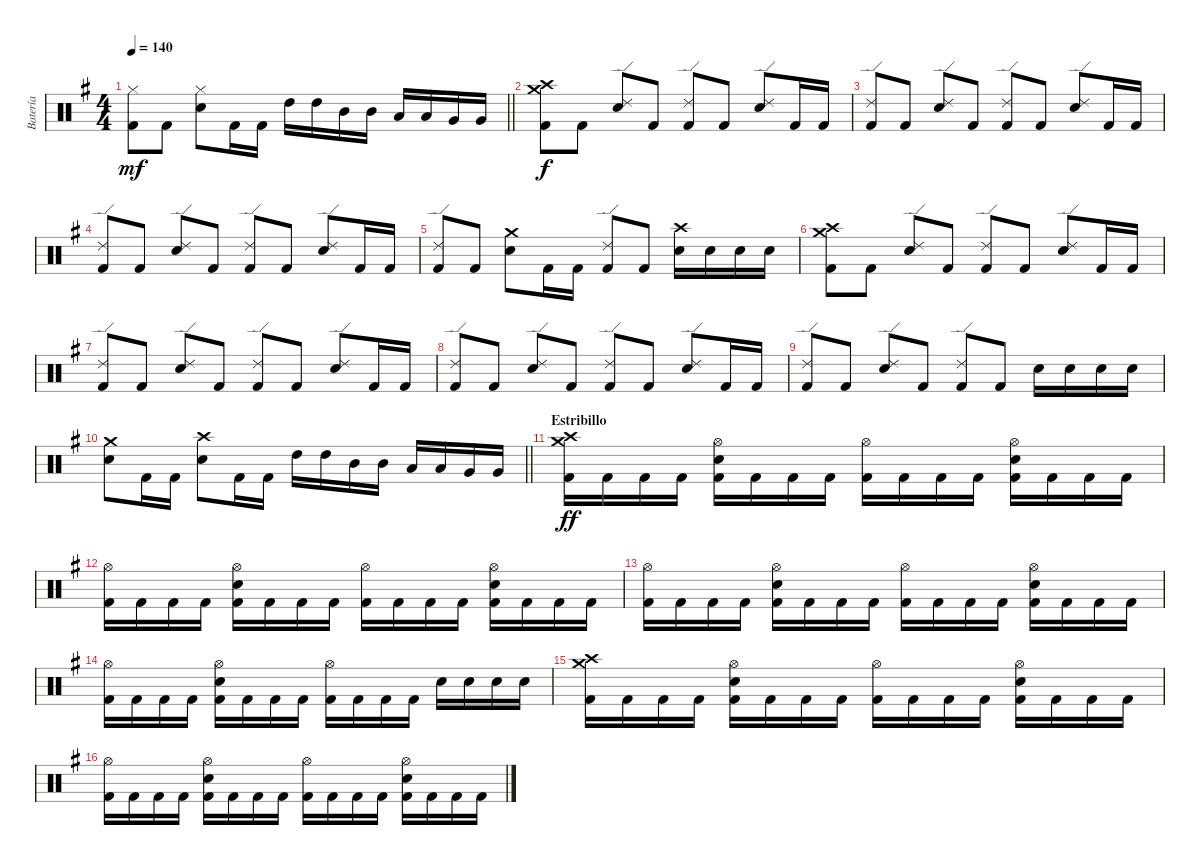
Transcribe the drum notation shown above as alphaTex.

\track ("Batería" "Batería") {instrument percussion}
\staff {score}
\articulation defaults
\ts (4 4)
\tempo 140
\clef neutral
\barLineRight lightlight
\ks g
("Hi-Hat (closed)" "Kick (hit) 2").8{dy mf} "Kick (hit) 2".8 ("Hi-Hat (closed)" "Snare (hit) 2").8 "Kick (hit) 2".16 "Kick (hit) 2".16 "High Tom (hit)".16 "High Tom (hit)".16 "Mid Tom (hit)".16 "Mid Tom (hit)".16 "Low Tom (hit)".16 "Low Tom (hit)".16 "Very Low Tom (hit)".16 "Very Low Tom (hit)".16 |
\section ("" "")
("Crash medium (hit)" "Crash high (hit)" "Kick (hit) 2").8{dy f} "Kick (hit) 2".8 ("Ride (edge) 2" "Snare (hit) 2").8 "Kick (hit) 2".8 ("Ride (edge) 2" "Kick (hit) 2").8 "Kick (hit) 2".8 ("Ride (edge) 2" "Snare (hit) 2").8 "Kick (hit) 2".16 "Kick (hit) 2".16 |
("Ride (edge) 2" "Kick (hit) 2").8 "Kick (hit) 2".8 ("Ride (edge) 2" "Snare (hit) 2").8 "Kick (hit) 2".8 ("Ride (edge) 2" "Kick (hit) 2").8 "Kick (hit) 2".8 ("Ride (edge) 2" "Snare (hit) 2").8 "Kick (hit) 2".16 "Kick (hit) 2".16 |
("Ride (edge) 2" "Kick (hit) 2").8 "Kick (hit) 2".8 ("Ride (edge) 2" "Snare (hit) 2").8 "Kick (hit) 2".8 ("Ride (edge) 2" "Kick (hit) 2").8 "Kick (hit) 2".8 ("Ride (edge) 2" "Snare (hit) 2").8 "Kick (hit) 2".16 "Kick (hit) 2".16 |
("Ride (edge) 2" "Kick (hit) 2").8 "Kick (hit) 2".8 ("Crash medium (hit)" "Snare (hit) 2").8 "Kick (hit) 2".16 "Kick (hit) 2".16 ("Ride (edge) 2" "Kick (hit) 2").8 "Kick (hit) 2".8 ("Crash high (hit)" "Snare (hit) 2").16 "Snare (hit) 2".16 "Snare (hit) 2".16 "Snare (hit) 2".16 |
("Crash medium (hit)" "Crash high (hit)" "Kick (hit) 2").8 "Kick (hit) 2".8 ("Ride (edge) 2" "Snare (hit) 2").8 "Kick (hit) 2".8 ("Ride (edge) 2" "Kick (hit) 2").8 "Kick (hit) 2".8 ("Ride (edge) 2" "Snare (hit) 2").8 "Kick (hit) 2".16 "Kick (hit) 2".16 |
("Ride (edge) 2" "Kick (hit) 2").8 "Kick (hit) 2".8 ("Ride (edge) 2" "Snare (hit) 2").8 "Kick (hit) 2".8 ("Ride (edge) 2" "Kick (hit) 2").8 "Kick (hit) 2".8 ("Ride (edge) 2" "Snare (hit) 2").8 "Kick (hit) 2".16 "Kick (hit) 2".16 |
("Ride (edge) 2" "Kick (hit) 2").8 "Kick (hit) 2".8 ("Ride (edge) 2" "Snare (hit) 2").8 "Kick (hit) 2".8 ("Ride (edge) 2" "Kick (hit) 2").8 "Kick (hit) 2".8 ("Ride (edge) 2" "Snare (hit) 2").8 "Kick (hit) 2".16 "Kick (hit) 2".16 |
("Ride (edge) 2" "Kick (hit) 2").8 "Kick (hit) 2".8 ("Ride (edge) 2" "Snare (hit) 2").8 "Kick (hit) 2".8 ("Ride (edge) 2" "Kick (hit) 2").8 "Kick (hit) 2".8 "Snare (hit) 2".16 "Snare (hit) 2".16 "Snare (hit) 2".16 "Snare (hit) 2".16 |
\barLineRight lightlight
("Crash medium (hit)" "Snare (hit) 2").8 "Kick (hit) 2".16 "Kick (hit) 2".16 ("Crash high (hit)" "Snare (hit) 2").8 "Kick (hit) 2".16 "Kick (hit) 2".16 "High Tom (hit)".16 "High Tom (hit)".16 "Mid Tom (hit)".16 "Mid Tom (hit)".16 "Low Tom (hit)".16 "Low Tom (hit)".16 "Very Low Tom (hit)".16 "Very Low Tom (hit)".16 |
\section ("" "Estribillo")
("Crash medium (hit)" "Crash high (hit)" "Kick (hit) 2").16{dy ff} "Kick (hit) 2".16 "Kick (hit) 2".16 "Kick (hit) 2".16 ("Hi-Hat (open)" "Snare (hit) 2" "Kick (hit) 2").16 "Kick (hit) 2".16 "Kick (hit) 2".16 "Kick (hit) 2".16 ("Hi-Hat (open)" "Kick (hit) 2").16 "Kick (hit) 2".16 "Kick (hit) 2".16 "Kick (hit) 2".16 ("Hi-Hat (open)" "Snare (hit) 2" "Kick (hit) 2").16 "Kick (hit) 2".16 "Kick (hit) 2".16 "Kick (hit) 2".16 |
("Hi-Hat (open)" "Kick (hit) 2").16 "Kick (hit) 2".16 "Kick (hit) 2".16 "Kick (hit) 2".16 ("Hi-Hat (open)" "Snare (hit) 2" "Kick (hit) 2").16 "Kick (hit) 2".16 "Kick (hit) 2".16 "Kick (hit) 2".16 ("Hi-Hat (open)" "Kick (hit) 2").16 "Kick (hit) 2".16 "Kick (hit) 2".16 "Kick (hit) 2".16 ("Hi-Hat (open)" "Snare (hit) 2" "Kick (hit) 2").16 "Kick (hit) 2".16 "Kick (hit) 2".16 "Kick (hit) 2".16 |
("Hi-Hat (open)" "Kick (hit) 2").16 "Kick (hit) 2".16 "Kick (hit) 2".16 "Kick (hit) 2".16 ("Hi-Hat (open)" "Snare (hit) 2" "Kick (hit) 2").16 "Kick (hit) 2".16 "Kick (hit) 2".16 "Kick (hit) 2".16 ("Hi-Hat (open)" "Kick (hit) 2").16 "Kick (hit) 2".16 "Kick (hit) 2".16 "Kick (hit) 2".16 ("Hi-Hat (open)" "Snare (hit) 2" "Kick (hit) 2").16 "Kick (hit) 2".16 "Kick (hit) 2".16 "Kick (hit) 2".16 |
("Hi-Hat (open)" "Kick (hit) 2").16 "Kick (hit) 2".16 "Kick (hit) 2".16 "Kick (hit) 2".16 ("Hi-Hat (open)" "Snare (hit) 2" "Kick (hit) 2").16 "Kick (hit) 2".16 "Kick (hit) 2".16 "Kick (hit) 2".16 ("Hi-Hat (open)" "Kick (hit) 2").16 "Kick (hit) 2".16 "Kick (hit) 2".16 "Kick (hit) 2".16 "Snare (hit) 2".16 "Snare (hit) 2".16 "Snare (hit) 2".16 "Snare (hit) 2".16 |
("Crash medium (hit)" "Crash high (hit)" "Kick (hit) 2").16 "Kick (hit) 2".16 "Kick (hit) 2".16 "Kick (hit) 2".16 ("Hi-Hat (open)" "Snare (hit) 2" "Kick (hit) 2").16 "Kick (hit) 2".16 "Kick (hit) 2".16 "Kick (hit) 2".16 ("Hi-Hat (open)" "Kick (hit) 2").16 "Kick (hit) 2".16 "Kick (hit) 2".16 "Kick (hit) 2".16 ("Hi-Hat (open)" "Snare (hit) 2" "Kick (hit) 2").16 "Kick (hit) 2".16 "Kick (hit) 2".16 "Kick (hit) 2".16 |
("Hi-Hat (open)" "Kick (hit) 2").16 "Kick (hit) 2".16 "Kick (hit) 2".16 "Kick (hit) 2".16 ("Hi-Hat (open)" "Snare (hit) 2" "Kick (hit) 2").16 "Kick (hit) 2".16 "Kick (hit) 2".16 "Kick (hit) 2".16 ("Hi-Hat (open)" "Kick (hit) 2").16 "Kick (hit) 2".16 "Kick (hit) 2".16 "Kick (hit) 2".16 ("Hi-Hat (open)" "Snare (hit) 2" "Kick (hit) 2").16 "Kick (hit) 2".16 "Kick (hit) 2".16 "Kick (hit) 2".16
